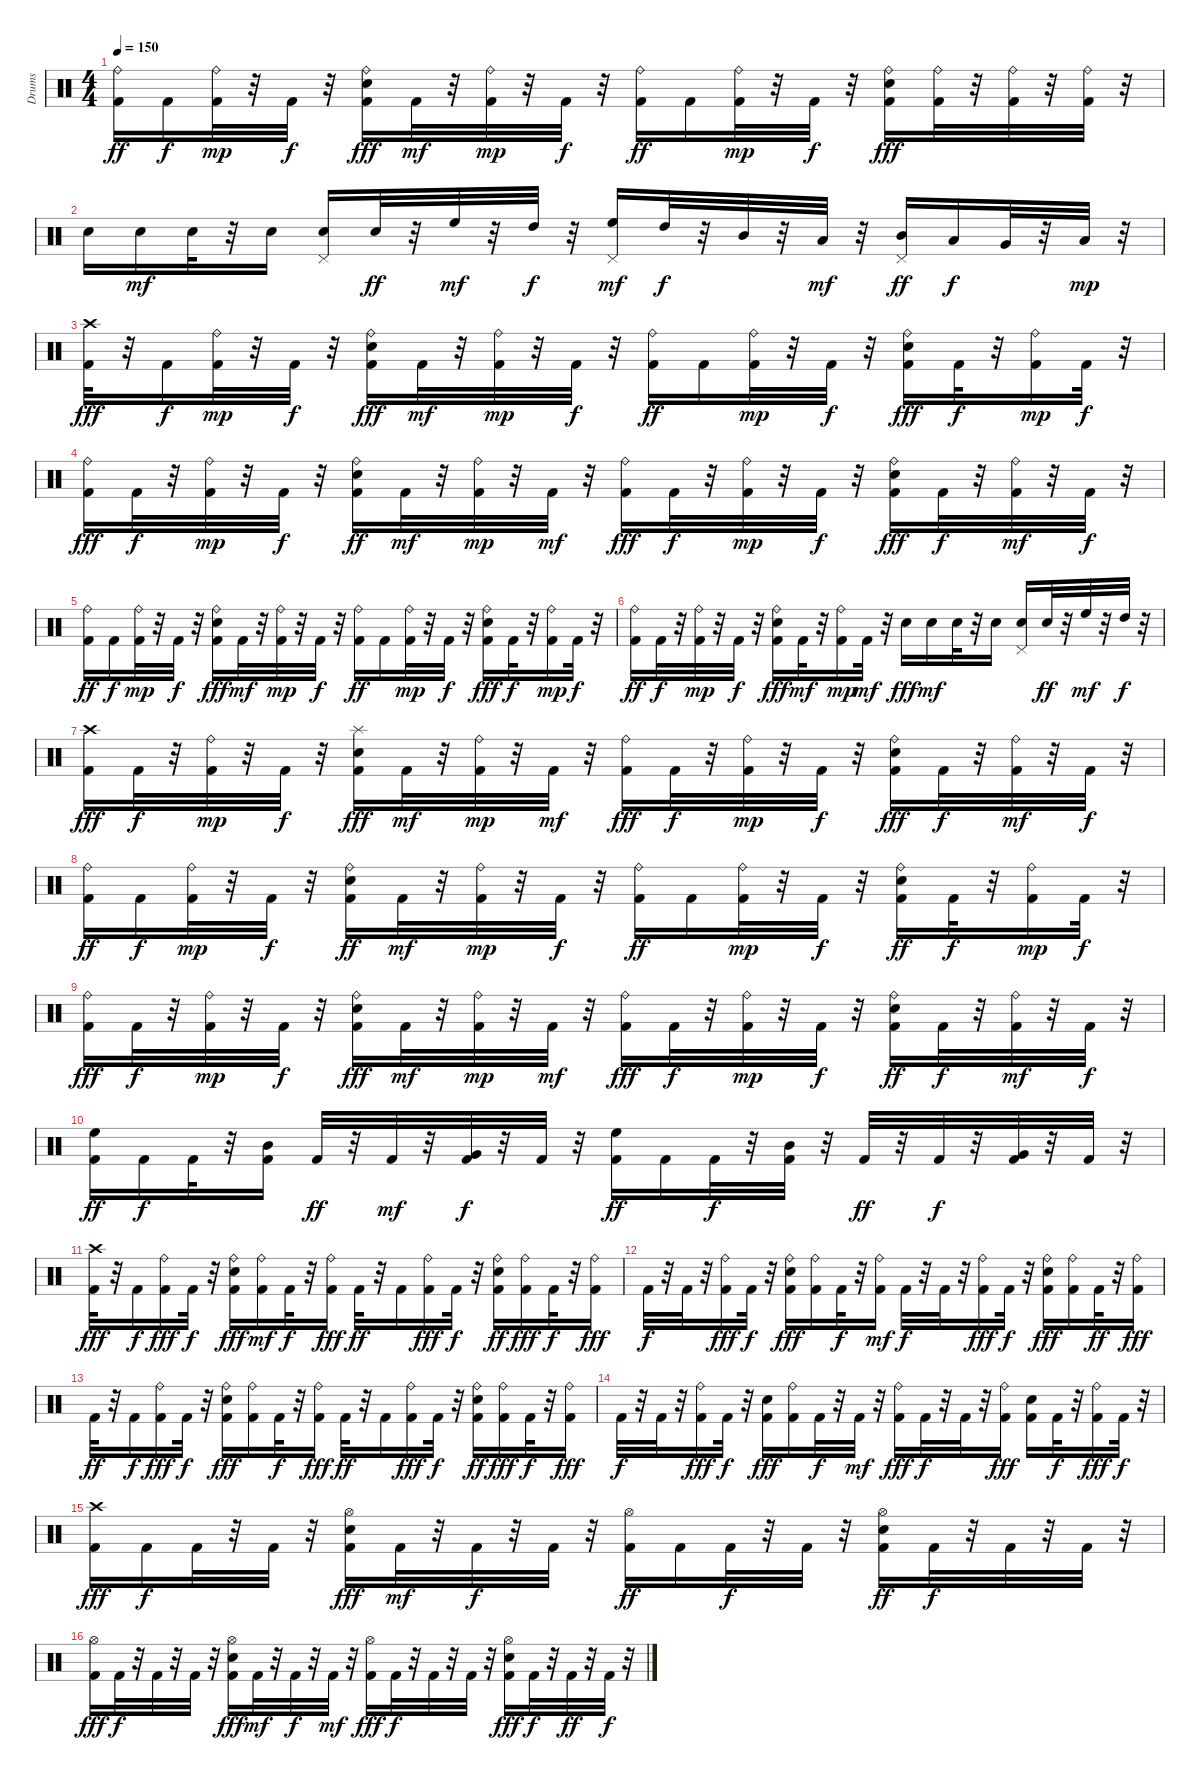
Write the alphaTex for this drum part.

\track ("Drums" "Drums") {instrument percussion}
\staff {score}
\articulation defaults
\ts (4 4)
\tempo 150
\clef neutral
\ks c
("Ride (bell)" "Kick (hit) 2").16{dy ff} "Kick (hit) 2".16{dy f} ("Ride (bell)" "Kick (hit) 2").32{dy mp} r.32 "Kick (hit) 2".32{dy f} r.32 ("Kick (hit) 2" "Electric Snare (hit)" "Ride (bell)").16{dy fff} "Kick (hit) 2".32{dy mf} r.32 ("Kick (hit) 2" "Ride (bell)").32{dy mp} r.32 "Kick (hit) 2".32{dy f} r.32 ("Ride (bell)" "Kick (hit) 2").16{dy ff} "Kick (hit) 2".16 ("Ride (bell)" "Kick (hit) 2").32{dy mp} r.32 "Kick (hit) 2".32{dy f} r.32 ("Electric Snare (hit)" "Kick (hit) 2" "Ride (bell)").16{dy fff} ("Kick (hit) 2" "Ride (bell)").32 r.32 ("Ride (bell)" "Kick (hit) 2").32 r.32 ("Ride (bell)" "Kick (hit) 2").32 r.32 |
"Electric Snare (hit)".16 "Electric Snare (hit)".16{dy mf} "Electric Snare (hit)".32 r.32 "Electric Snare (hit)".16 ("Electric Snare (hit)" "Pedal Hi-Hat (hit)").16 "Electric Snare (hit)".32{dy ff} r.32 "High Floor Tom (hit)".32{dy mf} r.32 "High Tom (hit)".32{dy f} r.32 ("High Floor Tom (hit)" "Pedal Hi-Hat (hit)").16{dy mf} "High Tom (hit)".32{dy f} r.32 "Mid Tom (hit)".32 r.32 "Low Tom (hit)".32{dy mf} r.32 ("Pedal Hi-Hat (hit)" "Mid Tom (hit)").16{dy ff} "Low Tom (hit)".16{dy f} "Very Low Tom (hit)".32 r.32 "Low Floor Tom (hit)".32{dy mp} r.32 |
("Kick (hit) 2" "Crash high (hit)").32{dy fff} r.32 "Kick (hit) 2".16{dy f} ("Ride (bell)" "Kick (hit) 2").32{dy mp} r.32 "Kick (hit) 2".32{dy f} r.32 ("Electric Snare (hit)" "Kick (hit) 2" "Ride (bell)").16{dy fff} "Kick (hit) 2".32{dy mf} r.32 ("Kick (hit) 2" "Ride (bell)").32{dy mp} r.32 "Kick (hit) 2".32{dy f} r.32 ("Kick (hit) 2" "Ride (bell)").16{dy ff} "Kick (hit) 2".16 ("Ride (bell)" "Kick (hit) 2").32{dy mp} r.32 "Kick (hit) 2".32{dy f} r.32 ("Kick (hit) 2" "Ride (bell)" "Electric Snare (hit)").16{dy fff} "Kick (hit) 2".32{dy f} r.32 ("Ride (bell)" "Kick (hit) 2").16{dy mp} "Kick (hit) 2".32{dy f} r.32 |
("Ride (bell)" "Kick (hit) 2").16{dy fff} "Kick (hit) 2".32{dy f} r.32 ("Ride (bell)" "Kick (hit) 2").32{dy mp} r.32 "Kick (hit) 2".32{dy f} r.32 ("Kick (hit) 2" "Electric Snare (hit)" "Ride (bell)").16{dy ff} "Kick (hit) 2".32{dy mf} r.32 ("Ride (bell)" "Kick (hit) 2").32{dy mp} r.32 "Kick (hit) 2".32{dy mf} r.32 ("Kick (hit) 2" "Ride (bell)").16{dy fff} "Kick (hit) 2".32{dy f} r.32 ("Ride (bell)" "Kick (hit) 2").32{dy mp} r.32 "Kick (hit) 2".32{dy f} r.32 ("Ride (bell)" "Electric Snare (hit)" "Kick (hit) 2").16{dy fff} "Kick (hit) 2".32{dy f} r.32 ("Kick (hit) 2" "Ride (bell)").32{dy mf} r.32 "Kick (hit) 2".32{dy f} r.32 |
("Kick (hit) 2" "Ride (bell)").16{dy ff} "Kick (hit) 2".16{dy f} ("Ride (bell)" "Kick (hit) 2").32{dy mp} r.32 "Kick (hit) 2".32{dy f} r.32 ("Electric Snare (hit)" "Kick (hit) 2" "Ride (bell)").16{dy fff} "Kick (hit) 2".32{dy mf} r.32 ("Ride (bell)" "Kick (hit) 2").32{dy mp} r.32 "Kick (hit) 2".32{dy f} r.32 ("Ride (bell)" "Kick (hit) 2").16{dy ff} "Kick (hit) 2".16 ("Kick (hit) 2" "Ride (bell)").32{dy mp} r.32 "Kick (hit) 2".32{dy f} r.32 ("Kick (hit) 2" "Ride (bell)" "Electric Snare (hit)").16{dy fff} "Kick (hit) 2".32{dy f} r.32 ("Ride (bell)" "Kick (hit) 2").16{dy mp} "Kick (hit) 2".32{dy f} r.32 |
("Ride (bell)" "Kick (hit) 2").16{dy ff} "Kick (hit) 2".32{dy f} r.32 ("Ride (bell)" "Kick (hit) 2").32{dy mp} r.32 "Kick (hit) 2".32{dy f} r.32 ("Ride (bell)" "Electric Snare (hit)" "Kick (hit) 2").16{dy fff} "Kick (hit) 2".32{dy mf} r.32 ("Ride (bell)" "Kick (hit) 2").16{dy mp} "Kick (hit) 2".32{dy mf} r.32 "Electric Snare (hit)".16{dy fff} "Electric Snare (hit)".16{dy mf} "Electric Snare (hit)".32 r.32 "Electric Snare (hit)".16 ("Electric Snare (hit)" "Pedal Hi-Hat (hit)").16 "Electric Snare (hit)".32{dy ff} r.32 "High Floor Tom (hit)".32{dy mf} r.32 "High Tom (hit)".32{dy f} r.32 |
("Crash high (hit)" "Kick (hit) 2").16{dy fff} "Kick (hit) 2".32{dy f} r.32 ("Kick (hit) 2" "Ride (bell)").32{dy mp} r.32 "Kick (hit) 2".32{dy f} r.32 ("Kick (hit) 2" "Splash (hit)" "Electric Snare (hit)").16{dy fff} "Kick (hit) 2".32{dy mf} r.32 ("Kick (hit) 2" "Ride (bell)").32{dy mp} r.32 "Kick (hit) 2".32{dy mf} r.32 ("Kick (hit) 2" "Ride (bell)").16{dy fff} "Kick (hit) 2".32{dy f} r.32 ("Ride (bell)" "Kick (hit) 2").32{dy mp} r.32 "Kick (hit) 2".32{dy f} r.32 ("Ride (bell)" "Kick (hit) 2" "Electric Snare (hit)").16{dy fff} "Kick (hit) 2".32{dy f} r.32 ("Kick (hit) 2" "Ride (bell)").32{dy mf} r.32 "Kick (hit) 2".32{dy f} r.32 |
("Ride (bell)" "Kick (hit) 2").16{dy ff} "Kick (hit) 2".16{dy f} ("Kick (hit) 2" "Ride (bell)").32{dy mp} r.32 "Kick (hit) 2".32{dy f} r.32 ("Ride (bell)" "Electric Snare (hit)" "Kick (hit) 2").16{dy ff} "Kick (hit) 2".32{dy mf} r.32 ("Kick (hit) 2" "Ride (bell)").32{dy mp} r.32 "Kick (hit) 2".32{dy f} r.32 ("Kick (hit) 2" "Ride (bell)").16{dy ff} "Kick (hit) 2".16 ("Ride (bell)" "Kick (hit) 2").32{dy mp} r.32 "Kick (hit) 2".32{dy f} r.32 ("Ride (bell)" "Electric Snare (hit)" "Kick (hit) 2").16{dy ff} "Kick (hit) 2".32{dy f} r.32 ("Ride (bell)" "Kick (hit) 2").16{dy mp} "Kick (hit) 2".32{dy f} r.32 |
("Ride (bell)" "Kick (hit) 2").16{dy fff} "Kick (hit) 2".32{dy f} r.32 ("Ride (bell)" "Kick (hit) 2").32{dy mp} r.32 "Kick (hit) 2".32{dy f} r.32 ("Ride (bell)" "Kick (hit) 2" "Electric Snare (hit)").16{dy fff} "Kick (hit) 2".32{dy mf} r.32 ("Kick (hit) 2" "Ride (bell)").32{dy mp} r.32 "Kick (hit) 2".32{dy mf} r.32 ("Ride (bell)" "Kick (hit) 2").16{dy fff} "Kick (hit) 2".32{dy f} r.32 ("Ride (bell)" "Kick (hit) 2").32{dy mp} r.32 "Kick (hit) 2".32{dy f} r.32 ("Electric Snare (hit)" "Ride (bell)" "Kick (hit) 2").16{dy ff} "Kick (hit) 2".32{dy f} r.32 ("Kick (hit) 2" "Ride (bell)").32{dy mf} r.32 "Kick (hit) 2".32{dy f} r.32 |
("Kick (hit) 2" "High Floor Tom (hit)").16{dy ff} "Kick (hit) 2".16{dy f} "Kick (hit) 2".32 r.32 ("Mid Tom (hit)" "Kick (hit) 2").16 "Kick (hit) 2".32{dy ff} r.32 "Kick (hit) 2".32{dy mf} r.32 ("Very Low Tom (hit)" "Kick (hit) 2").32{dy f} r.32 "Kick (hit) 2".32 r.32 ("Kick (hit) 2" "High Floor Tom (hit)").16{dy ff} "Kick (hit) 2".16 "Kick (hit) 2".32{dy f} r.32 ("Kick (hit) 2" "Mid Tom (hit)").32 r.32 "Kick (hit) 2".32{dy ff} r.32 "Kick (hit) 2".32{dy f} r.32 ("Very Low Tom (hit)" "Kick (hit) 2").32 r.32 "Kick (hit) 2".32 r.32 |
("Kick (hit) 2" "Crash high (hit)").32{dy fff} r.32 "Kick (hit) 2".16{dy f} ("Kick (hit) 2" "Ride (bell)").16{dy fff} "Kick (hit) 2".32{dy f} r.32 ("Ride (bell)" "Kick (hit) 2" "Electric Snare (hit)").16{dy fff} ("Ride (bell)" "Kick (hit) 2").16{dy mf} "Kick (hit) 2".32{dy f} r.32 ("Ride (bell)" "Kick (hit) 2").16{dy fff} "Kick (hit) 2".32{dy ff} r.32 "Kick (hit) 2".16 ("Ride (bell)" "Kick (hit) 2").16{dy fff} "Kick (hit) 2".32{dy f} r.32 ("Ride (bell)" "Electric Snare (hit)" "Kick (hit) 2").16{dy ff} ("Ride (bell)" "Kick (hit) 2").16{dy fff} "Kick (hit) 2".32{dy f} r.32 ("Ride (bell)" "Kick (hit) 2").16{dy fff} |
"Kick (hit) 2".32{dy f} r.32 "Kick (hit) 2".32 r.32 ("Kick (hit) 2" "Ride (bell)").16{dy fff} "Kick (hit) 2".32{dy f} r.32 ("Electric Snare (hit)" "Ride (bell)" "Kick (hit) 2").16{dy fff} ("Kick (hit) 2" "Ride (bell)").16 "Kick (hit) 2".32{dy f} r.32 ("Ride (bell)" "Kick (hit) 2").16{dy mf} "Kick (hit) 2".32{dy f} r.32 "Kick (hit) 2".32 r.32 ("Kick (hit) 2" "Ride (bell)").16{dy fff} "Kick (hit) 2".32{dy f} r.32 ("Electric Snare (hit)" "Ride (bell)" "Kick (hit) 2").16{dy fff} ("Kick (hit) 2" "Ride (bell)").16 "Kick (hit) 2".32{dy ff} r.32 ("Ride (bell)" "Kick (hit) 2").16{dy fff} |
"Kick (hit) 2".32{dy ff} r.32 "Kick (hit) 2".16{dy f} ("Kick (hit) 2" "Ride (bell)").16{dy fff} "Kick (hit) 2".32{dy f} r.32 ("Kick (hit) 2" "Ride (bell)" "Electric Snare (hit)").16{dy fff} ("Kick (hit) 2" "Ride (bell)").16 "Kick (hit) 2".32{dy f} r.32 ("Kick (hit) 2" "Ride (bell)").16{dy fff} "Kick (hit) 2".32{dy ff} r.32 "Kick (hit) 2".16 ("Kick (hit) 2" "Ride (bell)").16{dy fff} "Kick (hit) 2".32{dy f} r.32 ("Ride (bell)" "Electric Snare (hit)" "Kick (hit) 2").16{dy ff} ("Ride (bell)" "Kick (hit) 2").16{dy fff} "Kick (hit) 2".32{dy f} r.32 ("Ride (bell)" "Kick (hit) 2").16{dy fff} |
"Kick (hit) 2".32{dy f} r.32 "Kick (hit) 2".32 r.32 ("Kick (hit) 2" "Ride (bell)").16{dy fff} "Kick (hit) 2".32{dy f} r.32 ("Kick (hit) 2" "Electric Snare (hit)").16{dy fff} ("Kick (hit) 2" "Ride (bell)").16 "Kick (hit) 2".32{dy f} r.32 "Kick (hit) 2".32{dy mf} r.32 ("Ride (bell)" "Kick (hit) 2").16{dy fff} "Kick (hit) 2".32{dy f} r.32 "Kick (hit) 2".32 r.32 ("Kick (hit) 2" "Ride (bell)").16{dy fff} ("Electric Snare (hit)" "Kick (hit) 2").16 "Kick (hit) 2".32{dy f} r.32 ("Kick (hit) 2" "Ride (bell)").16{dy fff} "Kick (hit) 2".32{dy f} r.32 |
("Kick (hit) 2" "Crash high (hit)").16{dy fff} "Kick (hit) 2".16{dy f} "Kick (hit) 2".32 r.32 "Kick (hit) 2".32 r.32 ("Hi-Hat (open)" "Kick (hit) 2" "Electric Snare (hit)").16{dy fff} "Kick (hit) 2".32{dy mf} r.32 "Kick (hit) 2".32{dy f} r.32 "Kick (hit) 2".32 r.32 ("Hi-Hat (open)" "Kick (hit) 2").16{dy ff} "Kick (hit) 2".16 "Kick (hit) 2".32{dy f} r.32 "Kick (hit) 2".32 r.32 ("Hi-Hat (open)" "Electric Snare (hit)" "Kick (hit) 2").16{dy ff} "Kick (hit) 2".32{dy f} r.32 "Kick (hit) 2".32 r.32 "Kick (hit) 2".32 r.32 |
("Kick (hit) 2" "Hi-Hat (open)").16{dy fff} "Kick (hit) 2".32{dy f} r.32 "Kick (hit) 2".32 r.32 "Kick (hit) 2".32 r.32 ("Hi-Hat (open)" "Electric Snare (hit)" "Kick (hit) 2").16{dy fff} "Kick (hit) 2".32{dy mf} r.32 "Kick (hit) 2".32{dy f} r.32 "Kick (hit) 2".32{dy mf} r.32 ("Kick (hit) 2" "Hi-Hat (open)").16{dy fff} "Kick (hit) 2".32{dy f} r.32 "Kick (hit) 2".32 r.32 "Kick (hit) 2".32 r.32 ("Electric Snare (hit)" "Kick (hit) 2" "Hi-Hat (open)").16{dy fff} "Kick (hit) 2".32{dy f} r.32 "Kick (hit) 2".32{dy ff} r.32 "Kick (hit) 2".32{dy f} r.32
